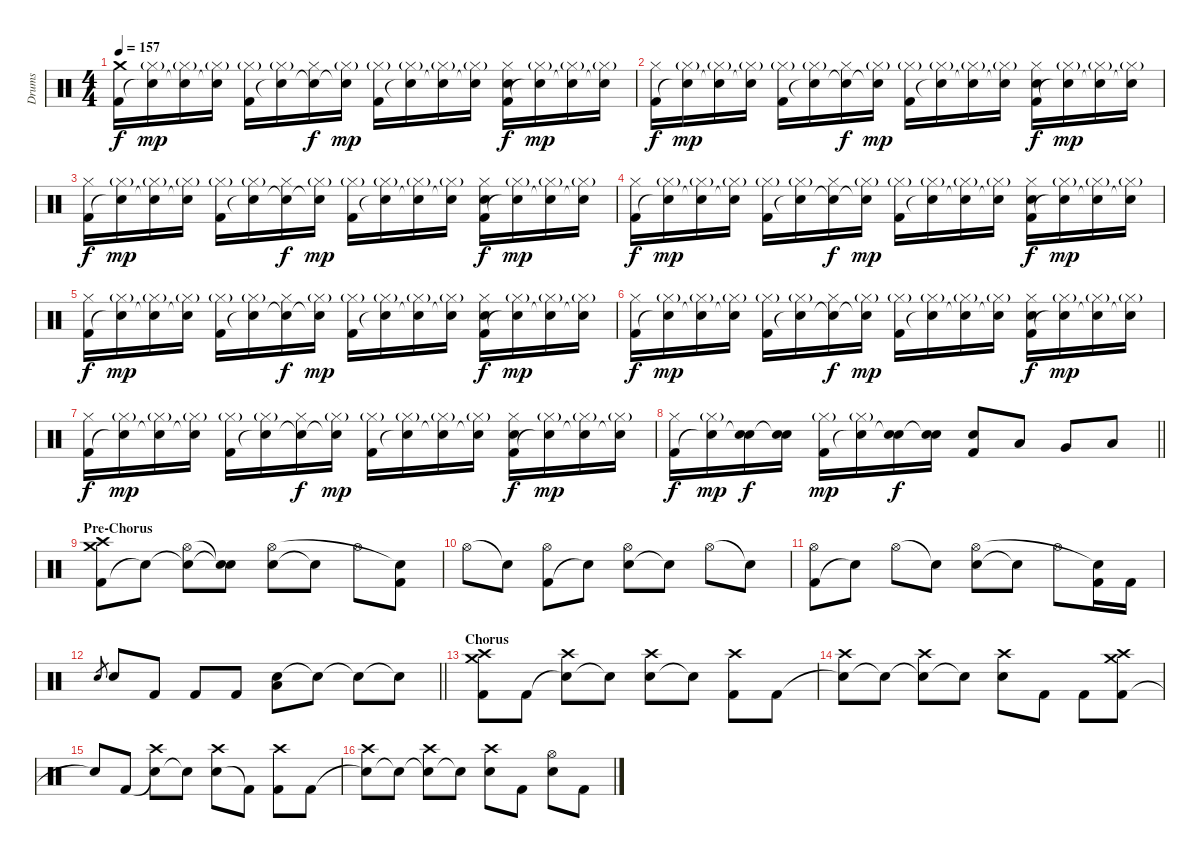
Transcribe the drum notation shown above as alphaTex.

\track ("Drums" "Drums") {instrument percussion}
\staff {score}
\articulation defaults
\ts (4 4)
\tempo 157
\clef neutral
\ks c
("Kick (hit) 2" "Crash medium (hit)").16{dy f} ("Snare (hit)"{t} "Hi-Hat (closed)"{g}).16{dy mp} ("Snare (hit)"{t} "Hi-Hat (closed)"{g}).16 ("Snare (hit)"{t} "Hi-Hat (closed)"{g}).16 ("Kick (hit) 2" "Hi-Hat (closed)"{g}).16 ("Snare (hit)"{t} "Hi-Hat (closed)"{g}).16 ("Snare (hit)"{t} "Hi-Hat (closed)").16{dy f} ("Snare (hit)"{t} "Hi-Hat (closed)"{g}).16{dy mp} ("Kick (hit) 2" "Hi-Hat (closed)"{g}).16 ("Snare (hit)"{t} "Hi-Hat (closed)"{g}).16 ("Snare (hit)"{t} "Hi-Hat (closed)"{g}).16 ("Snare (hit)"{t} "Hi-Hat (closed)"{g}).16 ("Kick (hit) 2" "Electric Snare (hit)" "Hi-Hat (closed)").16{dy f} ("Snare (hit)"{t} "Hi-Hat (closed)"{g}).16{dy mp} ("Snare (hit)"{t} "Hi-Hat (closed)"{g}).16 ("Snare (hit)"{t} "Hi-Hat (closed)"{g}).16 |
("Kick (hit) 2" "Hi-Hat (closed)").16{dy f} ("Snare (hit)"{t} "Hi-Hat (closed)"{g}).16{dy mp} ("Snare (hit)"{t} "Hi-Hat (closed)"{g}).16 ("Snare (hit)"{t} "Hi-Hat (closed)"{g}).16 ("Kick (hit) 2" "Hi-Hat (closed)"{g}).16 ("Snare (hit)"{t} "Hi-Hat (closed)"{g}).16 ("Snare (hit)"{t} "Hi-Hat (closed)").16{dy f} ("Snare (hit)"{t} "Hi-Hat (closed)"{g}).16{dy mp} ("Kick (hit) 2" "Hi-Hat (closed)"{g}).16 ("Snare (hit)"{t} "Hi-Hat (closed)"{g}).16 ("Snare (hit)"{t} "Hi-Hat (closed)"{g}).16 ("Snare (hit)"{t} "Hi-Hat (closed)"{g}).16 ("Kick (hit) 2" "Electric Snare (hit)" "Hi-Hat (closed)").16{dy f} ("Snare (hit)"{t} "Hi-Hat (closed)"{g}).16{dy mp} ("Snare (hit)"{t} "Hi-Hat (closed)"{g}).16 ("Snare (hit)"{t} "Hi-Hat (closed)"{g}).16 |
("Kick (hit) 2" "Hi-Hat (closed)").16{dy f} ("Snare (hit)"{t} "Hi-Hat (closed)"{g}).16{dy mp} ("Snare (hit)"{t} "Hi-Hat (closed)"{g}).16 ("Snare (hit)"{t} "Hi-Hat (closed)"{g}).16 ("Kick (hit) 2" "Hi-Hat (closed)"{g}).16 ("Snare (hit)"{t} "Hi-Hat (closed)"{g}).16 ("Snare (hit)"{t} "Hi-Hat (closed)").16{dy f} ("Snare (hit)"{t} "Hi-Hat (closed)"{g}).16{dy mp} ("Kick (hit) 2" "Hi-Hat (closed)"{g}).16 ("Snare (hit)"{t} "Hi-Hat (closed)"{g}).16 ("Snare (hit)"{t} "Hi-Hat (closed)"{g}).16 ("Snare (hit)"{t} "Hi-Hat (closed)"{g}).16 ("Kick (hit) 2" "Electric Snare (hit)" "Hi-Hat (closed)").16{dy f} ("Snare (hit)"{t} "Hi-Hat (closed)"{g}).16{dy mp} ("Snare (hit)"{t} "Hi-Hat (closed)"{g}).16 ("Snare (hit)"{t} "Hi-Hat (closed)"{g}).16 |
("Kick (hit) 2" "Hi-Hat (closed)").16{dy f} ("Snare (hit)"{t} "Hi-Hat (closed)"{g}).16{dy mp} ("Snare (hit)"{t} "Hi-Hat (closed)"{g}).16 ("Snare (hit)"{t} "Hi-Hat (closed)"{g}).16 ("Kick (hit) 2" "Hi-Hat (closed)"{g}).16 ("Snare (hit)"{t} "Hi-Hat (closed)"{g}).16 ("Snare (hit)"{t} "Hi-Hat (closed)").16{dy f} ("Snare (hit)"{t} "Hi-Hat (closed)"{g}).16{dy mp} ("Kick (hit) 2" "Hi-Hat (closed)"{g}).16 ("Snare (hit)"{t} "Hi-Hat (closed)"{g}).16 ("Snare (hit)"{t} "Hi-Hat (closed)"{g}).16 ("Snare (hit)"{t} "Hi-Hat (closed)"{g}).16 ("Kick (hit) 2" "Electric Snare (hit)" "Hi-Hat (closed)").16{dy f} ("Snare (hit)"{t} "Hi-Hat (closed)"{g}).16{dy mp} ("Snare (hit)"{t} "Hi-Hat (closed)"{g}).16 ("Snare (hit)"{t} "Hi-Hat (closed)"{g}).16 |
("Kick (hit) 2" "Hi-Hat (closed)").16{dy f} ("Snare (hit)"{t} "Hi-Hat (closed)"{g}).16{dy mp} ("Snare (hit)"{t} "Hi-Hat (closed)"{g}).16 ("Snare (hit)"{t} "Hi-Hat (closed)"{g}).16 ("Kick (hit) 2" "Hi-Hat (closed)"{g}).16 ("Snare (hit)"{t} "Hi-Hat (closed)"{g}).16 ("Snare (hit)"{t} "Hi-Hat (closed)").16{dy f} ("Snare (hit)"{t} "Hi-Hat (closed)"{g}).16{dy mp} ("Kick (hit) 2" "Hi-Hat (closed)"{g}).16 ("Snare (hit)"{t} "Hi-Hat (closed)"{g}).16 ("Snare (hit)"{t} "Hi-Hat (closed)"{g}).16 ("Snare (hit)"{t} "Hi-Hat (closed)"{g}).16 ("Kick (hit) 2" "Electric Snare (hit)" "Hi-Hat (closed)").16{dy f} ("Snare (hit)"{t} "Hi-Hat (closed)"{g}).16{dy mp} ("Snare (hit)"{t} "Hi-Hat (closed)"{g}).16 ("Snare (hit)"{t} "Hi-Hat (closed)"{g}).16 |
("Kick (hit) 2" "Hi-Hat (closed)").16{dy f} ("Snare (hit)"{t} "Hi-Hat (closed)"{g}).16{dy mp} ("Snare (hit)"{t} "Hi-Hat (closed)"{g}).16 ("Snare (hit)"{t} "Hi-Hat (closed)"{g}).16 ("Kick (hit) 2" "Hi-Hat (closed)"{g}).16 ("Snare (hit)"{t} "Hi-Hat (closed)"{g}).16 ("Snare (hit)"{t} "Hi-Hat (closed)").16{dy f} ("Snare (hit)"{t} "Hi-Hat (closed)"{g}).16{dy mp} ("Kick (hit) 2" "Hi-Hat (closed)"{g}).16 ("Snare (hit)"{t} "Hi-Hat (closed)"{g}).16 ("Snare (hit)"{t} "Hi-Hat (closed)"{g}).16 ("Snare (hit)"{t} "Hi-Hat (closed)"{g}).16 ("Kick (hit) 2" "Electric Snare (hit)" "Hi-Hat (closed)").16{dy f} ("Snare (hit)"{t} "Hi-Hat (closed)"{g}).16{dy mp} ("Snare (hit)"{t} "Hi-Hat (closed)"{g}).16 ("Snare (hit)"{t} "Hi-Hat (closed)"{g}).16 |
("Kick (hit) 2" "Hi-Hat (closed)").16{dy f} ("Snare (hit)"{t} "Hi-Hat (closed)"{g}).16{dy mp} ("Snare (hit)"{t} "Hi-Hat (closed)"{g}).16 ("Snare (hit)"{t} "Hi-Hat (closed)"{g}).16 ("Kick (hit) 2" "Hi-Hat (closed)"{g}).16 ("Snare (hit)"{t} "Hi-Hat (closed)"{g}).16 ("Snare (hit)"{t} "Hi-Hat (closed)").16{dy f} ("Snare (hit)"{t} "Hi-Hat (closed)"{g}).16{dy mp} ("Kick (hit) 2" "Hi-Hat (closed)"{g}).16 ("Snare (hit)"{t} "Hi-Hat (closed)"{g}).16 ("Snare (hit)"{t} "Hi-Hat (closed)"{g}).16 ("Snare (hit)"{t} "Hi-Hat (closed)"{g}).16 ("Kick (hit) 2" "Electric Snare (hit)" "Hi-Hat (closed)").16{dy f} ("Snare (hit)"{t} "Hi-Hat (closed)"{g}).16{dy mp} ("Snare (hit)"{t} "Hi-Hat (closed)"{g}).16 ("Snare (hit)"{t} "Hi-Hat (closed)"{g}).16 |
\barLineRight lightlight
("Kick (hit) 2" "Hi-Hat (closed)").16{dy f} ("Snare (hit)"{t} "Hi-Hat (closed)"{g}).16{dy mp} ("Snare (hit)"{t} "Electric Snare (hit)").16{dy f} ("Snare (hit)"{t} "Electric Snare (hit)").16 ("Kick (hit) 2" "Hi-Hat (closed)"{g}).16{dy mp} ("Snare (hit)"{t} "Hi-Hat (closed)"{g}).16 ("Snare (hit)"{t} "Electric Snare (hit)").16{dy f} ("Snare (hit)"{t} "Electric Snare (hit)").16 ("Kick (hit) 2" "Electric Snare (hit)").8 "Low Tom (hit)".8 "Very Low Tom (hit)".8 "Low Floor Tom (hit)".8 |
\section ("" "Pre-Chorus")
("Kick (hit) 2" "Crash medium (hit)" "Crash high (hit)").8 "Snare (hit)"{t}.8 ("Snare (hit)"{t} "Hi-Hat (open)").8 ("Snare (hit)"{t} "Snare (hit)"{t}).8 ("Electric Snare (hit)" "Hi-Hat (open)").8 "Snare (hit)"{t}.8 "Hi-Hat (open)".8 ("Kick (hit) 2" "Snare (hit)"{t}).8 |
"Hi-Hat (open)".8 "Snare (hit)"{t}.8 ("Kick (hit) 2" "Hi-Hat (open)").8 "Snare (hit)"{t}.8 ("Electric Snare (hit)" "Hi-Hat (open)").8 "Snare (hit)"{t}.8 "Hi-Hat (open)".8 "Snare (hit)"{t}.8 |
("Kick (hit) 2" "Hi-Hat (open)").8 "Snare (hit)"{t}.8 "Hi-Hat (open)".8 "Snare (hit)"{t}.8 ("Electric Snare (hit)" "Hi-Hat (open)").8 "Snare (hit)"{t}.8 "Hi-Hat (open)".8 ("Kick (hit) 2" "Snare (hit)"{t}).16 "Kick (hit) 2".16 |
\barLineRight lightlight "Electric Snare (hit)".8{gr} "Electric Snare (hit)".8 "Kick (hit) 2".8 "Kick (hit) 2".8 "Kick (hit) 2".8
("Electric Snare (hit)" "Low Floor Tom (hit)").8 "Electric Snare (hit)"{t}.8 "Snare (hit)"{t}.8 "Snare (hit)"{t}.8 |
\section ("" "Chorus")
("Kick (hit) 2" "Crash medium (hit)" "Crash high (hit)").8 "Kick (hit) 2".8 ("Snare (hit)"{t} "Crash high (hit)").8 "Snare (hit)"{t}.8 ("Electric Snare (hit)" "Crash high (hit)").8 "Snare (hit)"{t}.8 ("Kick (hit) 2" "Crash high (hit)").8 "Kick (hit) 2".8 |
("Snare (hit)"{t} "Crash high (hit)").8 "Snare (hit)"{t}.8 ("Snare (hit)"{t} "Crash high (hit)").8 "Electric Snare (hit)"{t}.8 ("Electric Snare (hit)" "Crash high (hit)").8 "Kick (hit) 2".8 "Kick (hit) 2".8 ("Kick (hit) 2" "Crash medium (hit)" "Crash high (hit)").8 |
"Snare (hit)"{t}.8 "Kick (hit) 2".8 ("Snare (hit)"{t} "Crash high (hit)").8 "Electric Snare (hit)"{t}.8 ("Electric Snare (hit)" "Crash high (hit)").8 "Kick (hit) 2"{t}.8 ("Kick (hit) 2" "Crash high (hit)").8 "Kick (hit) 2".8 |
("Electric Snare (hit)"{t} "Crash high (hit)").8 "Snare (hit)"{t}.8 ("Snare (hit)"{t} "Crash high (hit)").8 "Snare (hit)"{t}.8 ("Electric Snare (hit)" "Crash high (hit)").8 "Kick (hit) 2".8 ("Electric Snare (hit)" "Hi-Hat (open)").8 "Kick (hit) 2".8
